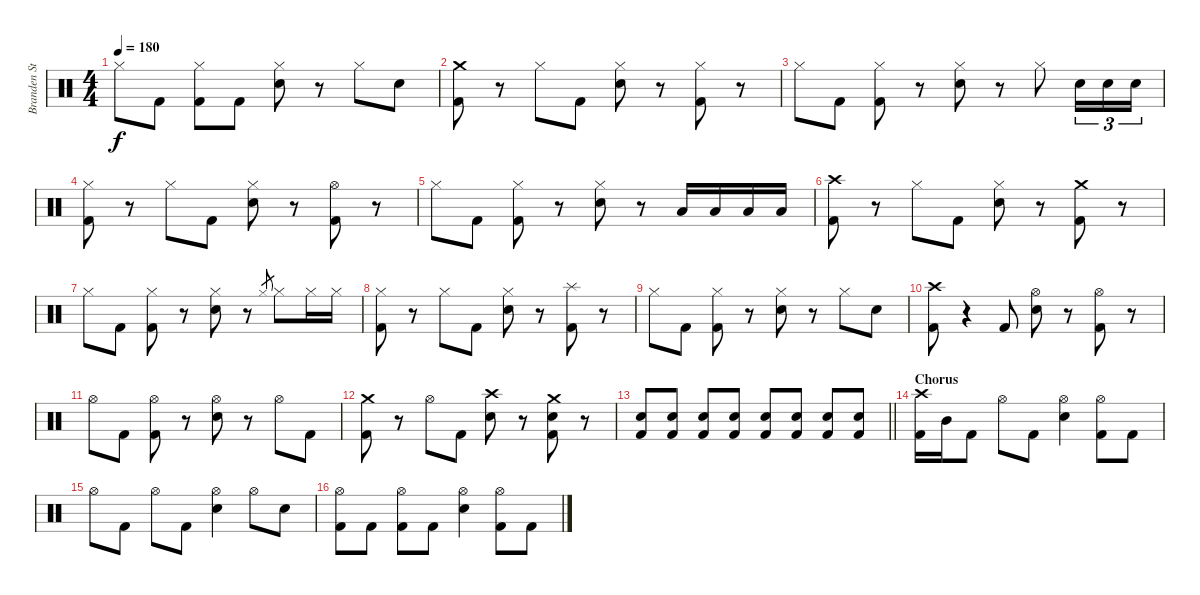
\track ("Branden Steineckert" "Branden St") {instrument percussion}
\staff {score}
\articulation defaults
\ts (4 4)
\tempo 180
\clef neutral
\ks c "Hi-Hat (closed)".8{dy f} "Kick (hit) 2".8
("Hi-Hat (closed)" "Kick (hit) 2").8 "Kick (hit) 2".8 ("Hi-Hat (closed)" "Electric Snare (hit)").8 r.8 "Hi-Hat (closed)".8 "Electric Snare (hit)".8 |
("Crash medium (hit)" "Kick (hit) 2").8 r.8 "Hi-Hat (closed)".8 "Kick (hit) 2".8 ("Hi-Hat (closed)" "Electric Snare (hit)").8 r.8 ("Hi-Hat (closed)" "Kick (hit) 2").8 r.8 |
"Hi-Hat (closed)".8 "Kick (hit) 2".8 ("Hi-Hat (closed)" "Kick (hit) 2").8 r.8 ("Hi-Hat (closed)" "Electric Snare (hit)").8 r.8 "Hi-Hat (closed)".8 "Electric Snare (hit)".16{tu (3 2)} "Electric Snare (hit)".16{tu (3 2)} "Electric Snare (hit)".16{tu (3 2)} |
("Hi-Hat (closed)" "Kick (hit) 2").8 r.8 "Hi-Hat (closed)".8 "Kick (hit) 2".8 ("Hi-Hat (closed)" "Electric Snare (hit)").8 r.8 ("Hi-Hat (open)" "Kick (hit) 2").8 r.8 |
"Hi-Hat (closed)".8 "Kick (hit) 2".8 ("Hi-Hat (closed)" "Kick (hit) 2").8 r.8 ("Hi-Hat (closed)" "Electric Snare (hit)").8 r.8 "Low Floor Tom (hit)".16 "Low Floor Tom (hit)".16 "Low Floor Tom (hit)".16 "Low Floor Tom (hit)".16 |
("Crash high (hit)" "Kick (hit) 2").8 r.8 "Hi-Hat (closed)".8 "Kick (hit) 2".8 ("Hi-Hat (closed)" "Electric Snare (hit)").8 r.8 ("Crash medium (hit)" "Kick (hit) 2").8 r.8 |
"Hi-Hat (closed)".8 "Kick (hit) 2".8 ("Hi-Hat (closed)" "Kick (hit) 2").8 r.8 ("Hi-Hat (closed)" "Electric Snare (hit)").8 r.8 "Hi-Hat (closed)".8{gr} "Hi-Hat (closed)".8 "Hi-Hat (closed)".16 "Hi-Hat (closed)".16 |
("Hi-Hat (closed)" "Kick (hit) 2").8 r.8 "Hi-Hat (closed)".8 "Kick (hit) 2".8 ("Hi-Hat (closed)" "Electric Snare (hit)").8 r.8 ("Splash (hit)" "Kick (hit) 2").8 r.8 |
"Hi-Hat (closed)".8 "Kick (hit) 2".8 ("Hi-Hat (closed)" "Kick (hit) 2").8 r.8 ("Hi-Hat (closed)" "Electric Snare (hit)").8 r.8 "Hi-Hat (closed)".8 "Electric Snare (hit)".8 |
("Crash high (hit)" "Kick (hit) 2").8 r.4 "Kick (hit) 2".8 ("Hi-Hat (open)" "Electric Snare (hit)").8 r.8 ("Hi-Hat (open)" "Kick (hit) 2").8 r.8 |
"Hi-Hat (open)".8 "Kick (hit) 2".8 ("Hi-Hat (open)" "Kick (hit) 2").8 r.8 ("Hi-Hat (open)" "Electric Snare (hit)").8 r.8 "Hi-Hat (open)".8 "Kick (hit) 2".8 |
("Crash medium (hit)" "Kick (hit) 2").8 r.8 "Hi-Hat (open)".8 "Kick (hit) 2".8 ("Crash high (hit)" "Electric Snare (hit)").8 r.8 ("Crash medium (hit)" "Electric Snare (hit)" "Kick (hit) 2").8 r.8 |
\barLineRight lightlight
("Electric Snare (hit)" "Kick (hit) 2").8 ("Electric Snare (hit)" "Kick (hit) 2").8 ("Electric Snare (hit)" "Kick (hit) 2").8 ("Electric Snare (hit)" "Kick (hit) 2").8 ("Electric Snare (hit)" "Kick (hit) 2").8 ("Electric Snare (hit)" "Kick (hit) 2").8 ("Electric Snare (hit)" "Kick (hit) 2").8 ("Electric Snare (hit)" "Kick (hit) 2").8 |
\section ("" "Chorus")
("Crash high (hit)" "Kick (hit) 2").16 "Mid Tom (hit)".16 "Kick (hit) 2".8 "Hi-Hat (open)".8 "Kick (hit) 2".8 ("Hi-Hat (open)" "Electric Snare (hit)").4 ("Hi-Hat (open)" "Kick (hit) 2").8 "Kick (hit) 2".8 |
"Hi-Hat (open)".8 "Kick (hit) 2".8 "Hi-Hat (open)".8 "Kick (hit) 2".8 ("Hi-Hat (open)" "Electric Snare (hit)").4 "Hi-Hat (open)".8 "Electric Snare (hit)".8 |
("Hi-Hat (open)" "Kick (hit) 2").8 "Kick (hit) 2".8 ("Hi-Hat (open)" "Kick (hit) 2").8 "Kick (hit) 2".8 ("Hi-Hat (open)" "Electric Snare (hit)").4 ("Hi-Hat (open)" "Kick (hit) 2").8 "Kick (hit) 2".8
